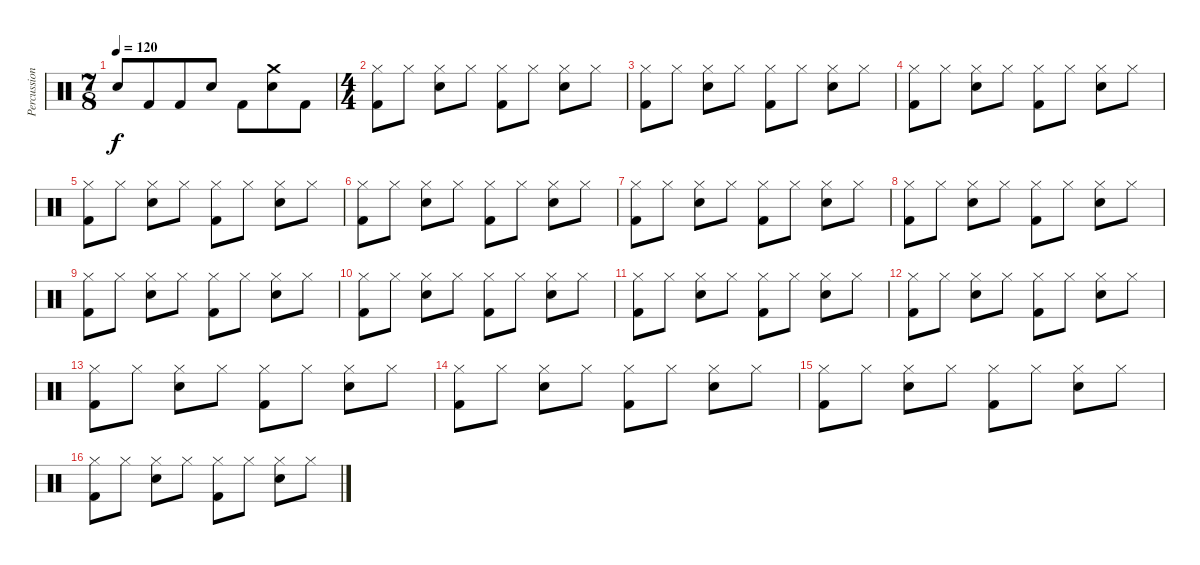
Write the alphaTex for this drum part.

\track ("Percussioni" "Percussion") {instrument percussion}
\staff {score}
\articulation defaults
\ts (7 8)
\tempo 120
\clef neutral
\ks c "Snare (hit) 2".8{dy f} "Kick (hit) 2".8 "Kick (hit) 2".8 "Snare (hit) 2".8 "Kick (hit) 2".8
("Crash medium (hit)" "Snare (hit) 2").8 "Kick (hit) 2".8 |
\ts (4 4)
("Hi-Hat (closed)" "Kick (hit) 2").8 "Hi-Hat (closed)".8 ("Hi-Hat (closed)" "Snare (hit) 2").8 "Hi-Hat (closed)".8 ("Hi-Hat (closed)" "Kick (hit) 2").8 "Hi-Hat (closed)".8 ("Hi-Hat (closed)" "Snare (hit) 2").8 "Hi-Hat (closed)".8 |
("Hi-Hat (closed)" "Kick (hit) 2").8 "Hi-Hat (closed)".8 ("Hi-Hat (closed)" "Snare (hit) 2").8 "Hi-Hat (closed)".8 ("Hi-Hat (closed)" "Kick (hit) 2").8 "Hi-Hat (closed)".8 ("Hi-Hat (closed)" "Snare (hit) 2").8 "Hi-Hat (closed)".8 |
("Hi-Hat (closed)" "Kick (hit) 2").8 "Hi-Hat (closed)".8 ("Hi-Hat (closed)" "Snare (hit) 2").8 "Hi-Hat (closed)".8 ("Hi-Hat (closed)" "Kick (hit) 2").8 "Hi-Hat (closed)".8 ("Hi-Hat (closed)" "Snare (hit) 2").8 "Hi-Hat (closed)".8 |
("Hi-Hat (closed)" "Kick (hit) 2").8 "Hi-Hat (closed)".8 ("Hi-Hat (closed)" "Snare (hit) 2").8 "Hi-Hat (closed)".8 ("Hi-Hat (closed)" "Kick (hit) 2").8 "Hi-Hat (closed)".8 ("Hi-Hat (closed)" "Snare (hit) 2").8 "Hi-Hat (closed)".8 |
("Hi-Hat (closed)" "Kick (hit) 2").8 "Hi-Hat (closed)".8 ("Hi-Hat (closed)" "Snare (hit) 2").8 "Hi-Hat (closed)".8 ("Hi-Hat (closed)" "Kick (hit) 2").8 "Hi-Hat (closed)".8 ("Hi-Hat (closed)" "Snare (hit) 2").8 "Hi-Hat (closed)".8 |
("Hi-Hat (closed)" "Kick (hit) 2").8 "Hi-Hat (closed)".8 ("Hi-Hat (closed)" "Snare (hit) 2").8 "Hi-Hat (closed)".8 ("Hi-Hat (closed)" "Kick (hit) 2").8 "Hi-Hat (closed)".8 ("Hi-Hat (closed)" "Snare (hit) 2").8 "Hi-Hat (closed)".8 |
("Hi-Hat (closed)" "Kick (hit) 2").8 "Hi-Hat (closed)".8 ("Hi-Hat (closed)" "Snare (hit) 2").8 "Hi-Hat (closed)".8 ("Hi-Hat (closed)" "Kick (hit) 2").8 "Hi-Hat (closed)".8 ("Hi-Hat (closed)" "Snare (hit) 2").8 "Hi-Hat (closed)".8 |
("Hi-Hat (closed)" "Kick (hit) 2").8 "Hi-Hat (closed)".8 ("Hi-Hat (closed)" "Snare (hit) 2").8 "Hi-Hat (closed)".8 ("Hi-Hat (closed)" "Kick (hit) 2").8 "Hi-Hat (closed)".8 ("Hi-Hat (closed)" "Snare (hit) 2").8 "Hi-Hat (closed)".8 |
("Hi-Hat (closed)" "Kick (hit) 2").8 "Hi-Hat (closed)".8 ("Hi-Hat (closed)" "Snare (hit) 2").8 "Hi-Hat (closed)".8 ("Hi-Hat (closed)" "Kick (hit) 2").8 "Hi-Hat (closed)".8 ("Hi-Hat (closed)" "Snare (hit) 2").8 "Hi-Hat (closed)".8 |
("Hi-Hat (closed)" "Kick (hit) 2").8 "Hi-Hat (closed)".8 ("Hi-Hat (closed)" "Snare (hit) 2").8 "Hi-Hat (closed)".8 ("Hi-Hat (closed)" "Kick (hit) 2").8 "Hi-Hat (closed)".8 ("Hi-Hat (closed)" "Snare (hit) 2").8 "Hi-Hat (closed)".8 |
("Hi-Hat (closed)" "Kick (hit) 2").8 "Hi-Hat (closed)".8 ("Hi-Hat (closed)" "Snare (hit) 2").8 "Hi-Hat (closed)".8 ("Hi-Hat (closed)" "Kick (hit) 2").8 "Hi-Hat (closed)".8 ("Hi-Hat (closed)" "Snare (hit) 2").8 "Hi-Hat (closed)".8 |
("Hi-Hat (closed)" "Kick (hit) 2").8 "Hi-Hat (closed)".8 ("Hi-Hat (closed)" "Snare (hit) 2").8 "Hi-Hat (closed)".8 ("Hi-Hat (closed)" "Kick (hit) 2").8 "Hi-Hat (closed)".8 ("Hi-Hat (closed)" "Snare (hit) 2").8 "Hi-Hat (closed)".8 |
("Hi-Hat (closed)" "Kick (hit) 2").8 "Hi-Hat (closed)".8 ("Hi-Hat (closed)" "Snare (hit) 2").8 "Hi-Hat (closed)".8 ("Hi-Hat (closed)" "Kick (hit) 2").8 "Hi-Hat (closed)".8 ("Hi-Hat (closed)" "Snare (hit) 2").8 "Hi-Hat (closed)".8 |
("Hi-Hat (closed)" "Kick (hit) 2").8 "Hi-Hat (closed)".8 ("Hi-Hat (closed)" "Snare (hit) 2").8 "Hi-Hat (closed)".8 ("Hi-Hat (closed)" "Kick (hit) 2").8 "Hi-Hat (closed)".8 ("Hi-Hat (closed)" "Snare (hit) 2").8 "Hi-Hat (closed)".8 |
("Hi-Hat (closed)" "Kick (hit) 2").8 "Hi-Hat (closed)".8 ("Hi-Hat (closed)" "Snare (hit) 2").8 "Hi-Hat (closed)".8 ("Hi-Hat (closed)" "Kick (hit) 2").8 "Hi-Hat (closed)".8 ("Hi-Hat (closed)" "Snare (hit) 2").8 "Hi-Hat (closed)".8
